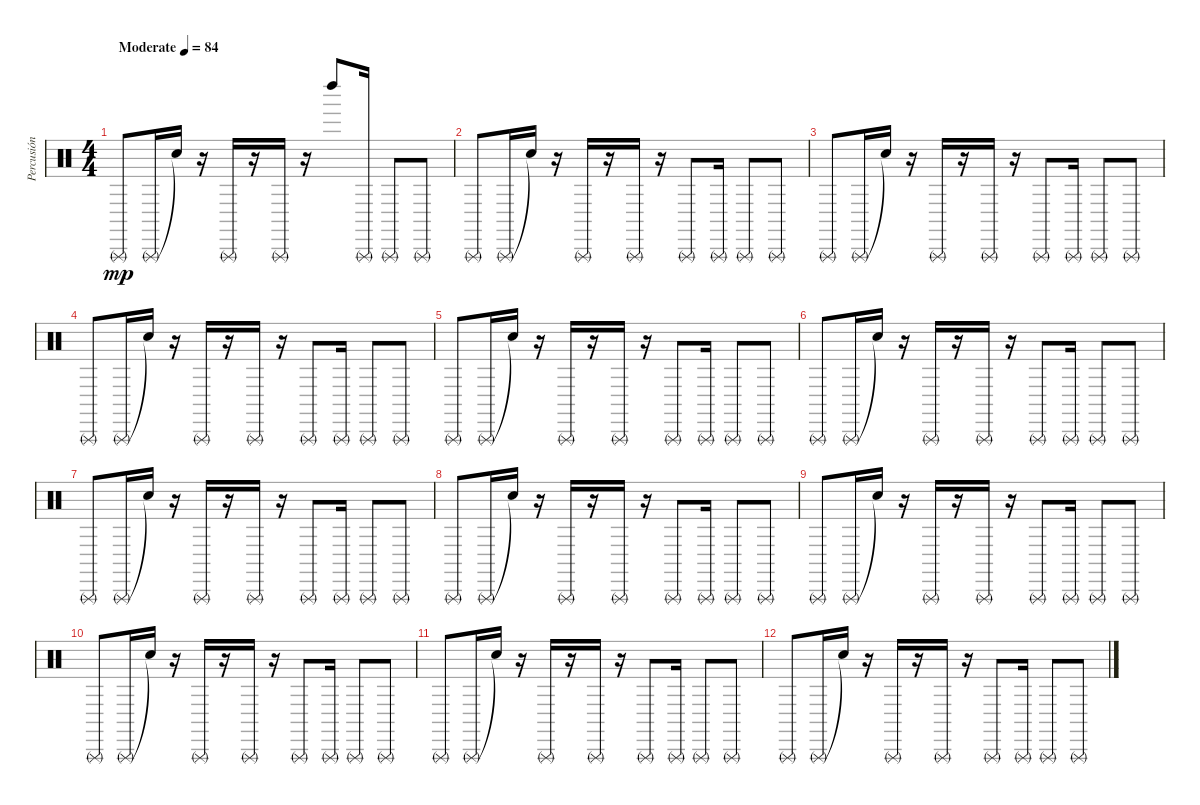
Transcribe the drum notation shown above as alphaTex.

\track ("Percusión" "Percusión") {instrument percussion}
\staff {score}
\articulation defaults
\ts (4 4)
\tempo (84 "Moderate")
\clef neutral
\ks c "Triangle (rnute)".8{dy mp} "Triangle (rnute)".16 "Snare (hit)"{t}.16
r.16 "Triangle (rnute)".16 r.16 "Triangle (rnute)".16 r.16 "Left Maraca (hit)".8 "Triangle (rnute)".16 "Triangle (rnute)".8 "Triangle (rnute)".8 |
"Triangle (rnute)".8 "Triangle (rnute)".16 "Snare (hit)"{t}.16 r.16 "Triangle (rnute)".16 r.16 "Triangle (rnute)".16 r.16 "Triangle (rnute)".8 "Triangle (rnute)".16 "Triangle (rnute)".8 "Triangle (rnute)".8 |
"Triangle (rnute)".8 "Triangle (rnute)".16 "Snare (hit)"{t}.16 r.16 "Triangle (rnute)".16 r.16 "Triangle (rnute)".16 r.16 "Triangle (rnute)".8 "Triangle (rnute)".16 "Triangle (rnute)".8 "Triangle (rnute)".8 |
"Triangle (rnute)".8 "Triangle (rnute)".16 "Snare (hit)"{t}.16 r.16 "Triangle (rnute)".16 r.16 "Triangle (rnute)".16 r.16 "Triangle (rnute)".8 "Triangle (rnute)".16 "Triangle (rnute)".8 "Triangle (rnute)".8 |
"Triangle (rnute)".8 "Triangle (rnute)".16 "Snare (hit)"{t}.16 r.16 "Triangle (rnute)".16 r.16 "Triangle (rnute)".16 r.16 "Triangle (rnute)".8 "Triangle (rnute)".16 "Triangle (rnute)".8 "Triangle (rnute)".8 |
"Triangle (rnute)".8 "Triangle (rnute)".16 "Snare (hit)"{t}.16 r.16 "Triangle (rnute)".16 r.16 "Triangle (rnute)".16 r.16 "Triangle (rnute)".8 "Triangle (rnute)".16 "Triangle (rnute)".8 "Triangle (rnute)".8 |
"Triangle (rnute)".8 "Triangle (rnute)".16 "Snare (hit)"{t}.16 r.16 "Triangle (rnute)".16 r.16 "Triangle (rnute)".16 r.16 "Triangle (rnute)".8 "Triangle (rnute)".16 "Triangle (rnute)".8 "Triangle (rnute)".8 |
"Triangle (rnute)".8 "Triangle (rnute)".16 "Snare (hit)"{t}.16 r.16 "Triangle (rnute)".16 r.16 "Triangle (rnute)".16 r.16 "Triangle (rnute)".8 "Triangle (rnute)".16 "Triangle (rnute)".8 "Triangle (rnute)".8 |
"Triangle (rnute)".8 "Triangle (rnute)".16 "Snare (hit)"{t}.16 r.16 "Triangle (rnute)".16 r.16 "Triangle (rnute)".16 r.16 "Triangle (rnute)".8 "Triangle (rnute)".16 "Triangle (rnute)".8 "Triangle (rnute)".8 |
"Triangle (rnute)".8 "Triangle (rnute)".16 "Snare (hit)"{t}.16 r.16 "Triangle (rnute)".16 r.16 "Triangle (rnute)".16 r.16 "Triangle (rnute)".8 "Triangle (rnute)".16 "Triangle (rnute)".8 "Triangle (rnute)".8 |
"Triangle (rnute)".8 "Triangle (rnute)".16 "Snare (hit)"{t}.16 r.16 "Triangle (rnute)".16 r.16 "Triangle (rnute)".16 r.16 "Triangle (rnute)".8 "Triangle (rnute)".16 "Triangle (rnute)".8 "Triangle (rnute)".8 |
"Triangle (rnute)".8 "Triangle (rnute)".16 "Snare (hit)"{t}.16 r.16 "Triangle (rnute)".16 r.16 "Triangle (rnute)".16 r.16 "Triangle (rnute)".8 "Triangle (rnute)".16 "Triangle (rnute)".8 "Triangle (rnute)".8
